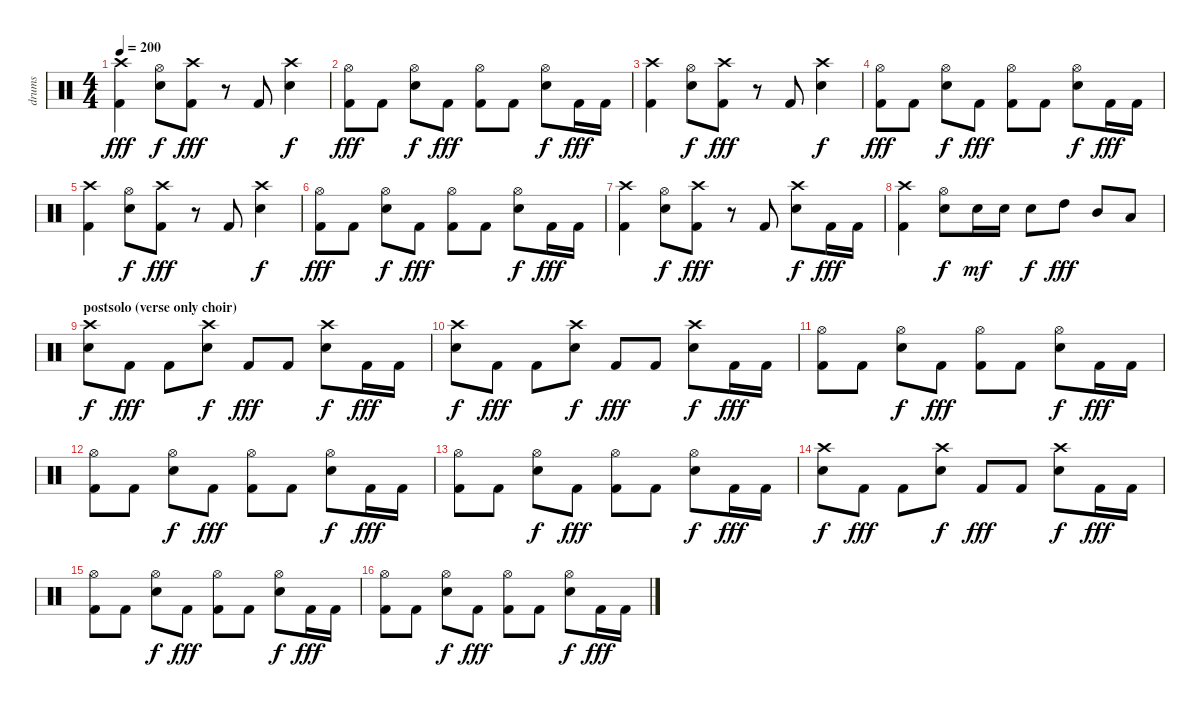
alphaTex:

\track ("drums" "drums") {instrument percussion}
\staff {score}
\articulation defaults
\ts (4 4)
\tempo 200
\clef neutral
\ks c
("Crash high (hit)" "Kick (hit) 2").4{dy fff} ("Hi-Hat (open)" "Snare (hit) 2").8{dy f} ("Crash high (hit)" "Kick (hit) 2").8{dy fff} r.8 "Kick (hit) 2".8 ("Crash high (hit)" "Snare (hit) 2").4{dy f} |
("Hi-Hat (open)" "Kick (hit) 2").8{dy fff} "Kick (hit) 2".8 ("Hi-Hat (open)" "Snare (hit) 2").8{dy f} "Kick (hit) 2".8{dy fff} ("Hi-Hat (open)" "Kick (hit) 2").8 "Kick (hit) 2".8 ("Hi-Hat (open)" "Snare (hit) 2").8{dy f} "Kick (hit) 2".16{dy fff} "Kick (hit) 2".16 |
("Crash high (hit)" "Kick (hit) 2").4 ("Hi-Hat (open)" "Snare (hit) 2").8{dy f} ("Crash high (hit)" "Kick (hit) 2").8{dy fff} r.8 "Kick (hit) 2".8 ("Crash high (hit)" "Snare (hit) 2").4{dy f} |
("Hi-Hat (open)" "Kick (hit) 2").8{dy fff} "Kick (hit) 2".8 ("Hi-Hat (open)" "Snare (hit) 2").8{dy f} "Kick (hit) 2".8{dy fff} ("Hi-Hat (open)" "Kick (hit) 2").8 "Kick (hit) 2".8 ("Hi-Hat (open)" "Snare (hit) 2").8{dy f} "Kick (hit) 2".16{dy fff} "Kick (hit) 2".16 |
("Crash high (hit)" "Kick (hit) 2").4 ("Hi-Hat (open)" "Snare (hit) 2").8{dy f} ("Crash high (hit)" "Kick (hit) 2").8{dy fff} r.8 "Kick (hit) 2".8 ("Crash high (hit)" "Snare (hit) 2").4{dy f} |
("Hi-Hat (open)" "Kick (hit) 2").8{dy fff} "Kick (hit) 2".8 ("Hi-Hat (open)" "Snare (hit) 2").8{dy f} "Kick (hit) 2".8{dy fff} ("Hi-Hat (open)" "Kick (hit) 2").8 "Kick (hit) 2".8 ("Hi-Hat (open)" "Snare (hit) 2").8{dy f} "Kick (hit) 2".16{dy fff} "Kick (hit) 2".16 |
("Crash high (hit)" "Kick (hit) 2").4 ("Hi-Hat (open)" "Snare (hit) 2").8{dy f} ("Crash high (hit)" "Kick (hit) 2").8{dy fff} r.8 "Kick (hit) 2".8 ("Crash high (hit)" "Snare (hit) 2").8{dy f} "Kick (hit) 2".16{dy fff} "Kick (hit) 2".16 |
("Crash high (hit)" "Kick (hit) 2").4 ("Hi-Hat (open)" "Snare (hit) 2").8{dy f} "Snare (hit) 2".16{dy mf} "Snare (hit) 2".16 "Snare (hit) 2".8{dy f} "High Tom (hit)".8{dy fff} "Mid Tom (hit)".8 "Low Tom (hit)".8 |
\section ("" "postsolo (verse only choir)")
("Crash high (hit)" "Snare (hit) 2").8{dy f} "Kick (hit) 2".8{dy fff} "Kick (hit) 2".8 ("Crash high (hit)" "Snare (hit) 2").8{dy f} "Kick (hit) 2".8{dy fff} "Kick (hit) 2".8 ("Crash high (hit)" "Snare (hit) 2").8{dy f} "Kick (hit) 2".16{dy fff} "Kick (hit) 2".16 |
("Crash high (hit)" "Snare (hit) 2").8{dy f} "Kick (hit) 2".8{dy fff} "Kick (hit) 2".8 ("Crash high (hit)" "Snare (hit) 2").8{dy f} "Kick (hit) 2".8{dy fff} "Kick (hit) 2".8 ("Crash high (hit)" "Snare (hit) 2").8{dy f} "Kick (hit) 2".16{dy fff} "Kick (hit) 2".16 |
("Hi-Hat (open)" "Kick (hit) 2").8 "Kick (hit) 2".8 ("Hi-Hat (open)" "Snare (hit) 2").8{dy f} "Kick (hit) 2".8{dy fff} ("Hi-Hat (open)" "Kick (hit) 2").8 "Kick (hit) 2".8 ("Hi-Hat (open)" "Snare (hit) 2").8{dy f} "Kick (hit) 2".16{dy fff} "Kick (hit) 2".16 |
("Hi-Hat (open)" "Kick (hit) 2").8 "Kick (hit) 2".8 ("Hi-Hat (open)" "Snare (hit) 2").8{dy f} "Kick (hit) 2".8{dy fff} ("Hi-Hat (open)" "Kick (hit) 2").8 "Kick (hit) 2".8 ("Hi-Hat (open)" "Snare (hit) 2").8{dy f} "Kick (hit) 2".16{dy fff} "Kick (hit) 2".16 |
("Hi-Hat (open)" "Kick (hit) 2").8 "Kick (hit) 2".8 ("Hi-Hat (open)" "Snare (hit) 2").8{dy f} "Kick (hit) 2".8{dy fff} ("Hi-Hat (open)" "Kick (hit) 2").8 "Kick (hit) 2".8 ("Hi-Hat (open)" "Snare (hit) 2").8{dy f} "Kick (hit) 2".16{dy fff} "Kick (hit) 2".16 |
("Crash high (hit)" "Snare (hit) 2").8{dy f} "Kick (hit) 2".8{dy fff} "Kick (hit) 2".8 ("Crash high (hit)" "Snare (hit) 2").8{dy f} "Kick (hit) 2".8{dy fff} "Kick (hit) 2".8 ("Crash high (hit)" "Snare (hit) 2").8{dy f} "Kick (hit) 2".16{dy fff} "Kick (hit) 2".16 |
("Hi-Hat (open)" "Kick (hit) 2").8 "Kick (hit) 2".8 ("Hi-Hat (open)" "Snare (hit) 2").8{dy f} "Kick (hit) 2".8{dy fff} ("Hi-Hat (open)" "Kick (hit) 2").8 "Kick (hit) 2".8 ("Hi-Hat (open)" "Snare (hit) 2").8{dy f} "Kick (hit) 2".16{dy fff} "Kick (hit) 2".16 |
("Hi-Hat (open)" "Kick (hit) 2").8 "Kick (hit) 2".8 ("Hi-Hat (open)" "Snare (hit) 2").8{dy f} "Kick (hit) 2".8{dy fff} ("Hi-Hat (open)" "Kick (hit) 2").8 "Kick (hit) 2".8 ("Hi-Hat (open)" "Snare (hit) 2").8{dy f} "Kick (hit) 2".16{dy fff} "Kick (hit) 2".16
